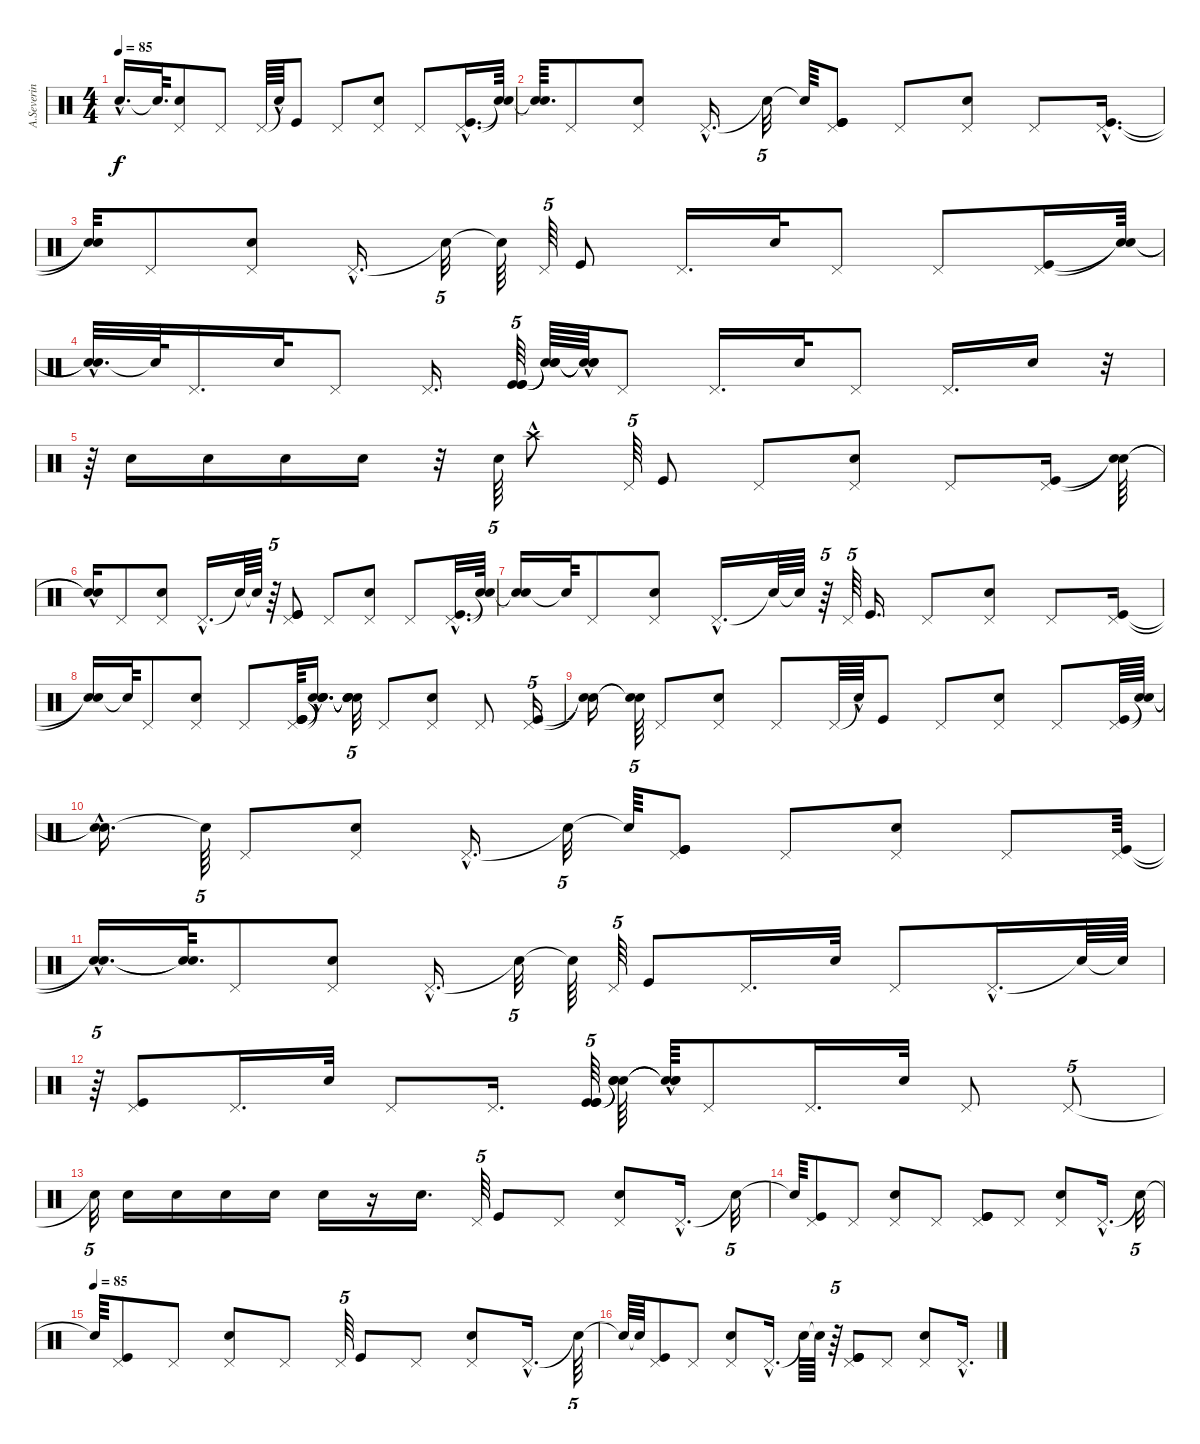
\track ("A.Severin        Drums                  " "A.Severin ") {instrument percussion}
\staff {score}
\articulation defaults
\ts (4 4)
\tempo 85
\clef neutral
\ks c "Snare (hit)"{hac t}.16{d dy f} "Snare (hit)"{t}.64{d}
("Electric Snare (hit)" "Pedal Hi-Hat (hit)").8 "Pedal Hi-Hat (hit)".8 "Pedal Hi-Hat (hit)".64 "Snare (hit)"{hac t}.64 "Kick (hit)".8 "Pedal Hi-Hat (hit)".8 ("Electric Snare (hit)" "Pedal Hi-Hat (hit)").8 "Pedal Hi-Hat (hit)".8 ("Kick (hit)"{hac} "Pedal Hi-Hat (hit)"{hac}).16{d} ("Snare (hit)"{t} "Snare (hit)"{t}).64 |
("Snare (hit)"{t} "Snare (hit)"{t}).64{d} "Pedal Hi-Hat (hit)".8 ("Electric Snare (hit)" "Pedal Hi-Hat (hit)").8 "Pedal Hi-Hat (hit)"{hac}.16{d} "Snare (hit)"{t}.32{tu (5 4)} "Snare (hit)"{t}.64 ("Kick (hit)" "Kick (hit)" "Kick (hit)" "Pedal Hi-Hat (hit)").8 "Pedal Hi-Hat (hit)".8 ("Electric Snare (hit)" "Pedal Hi-Hat (hit)").8 "Pedal Hi-Hat (hit)".8 ("Kick (hit)"{hac} "Pedal Hi-Hat (hit)"{hac}).16{d} |
("Snare (hit)"{t} "Snare (hit)"{t}).32 "Pedal Hi-Hat (hit)".8 ("Electric Snare (hit)" "Pedal Hi-Hat (hit)").8 "Pedal Hi-Hat (hit)"{hac}.16{d} "Snare (hit)"{t}.32{tu (5 4)} "Snare (hit)"{t}.64 "Pedal Hi-Hat (hit)".64{tu (5 4)} "Kick (hit)".8 "Pedal Hi-Hat (hit)".16{d} "Electric Snare (hit)".32 "Pedal Hi-Hat (hit)".8 "Pedal Hi-Hat (hit)".8 ("Kick (hit)" "Pedal Hi-Hat (hit)").16 ("Snare (hit)"{t} "Snare (hit)"{t}).64 |
("Snare (hit)"{hac t} "Snare (hit)"{hac t}).32{d} "Snare (hit)"{t}.64 "Pedal Hi-Hat (hit)".16{d} "Electric Snare (hit)".32 "Pedal Hi-Hat (hit)".8 "Pedal Hi-Hat (hit)".16{d} ("Kick (hit)" "Kick (hit)" "Kick (hit)").64{tu (5 4)} ("Snare (hit)"{t} "Snare (hit)"{t} "Snare (hit)"{t}).64 ("Snare (hit)"{hac t} "Snare (hit)"{hac t} "Snare (hit)"{hac t}).64 "Pedal Hi-Hat (hit)".8 "Pedal Hi-Hat (hit)".16{d} "Electric Snare (hit)".32 "Pedal Hi-Hat (hit)".8 "Pedal Hi-Hat (hit)".16{d} "Electric Snare (hit)".16 r.32 |
r.64 "Electric Snare (hit)".16 "Electric Snare (hit)".16 "Electric Snare (hit)".16 "Electric Snare (hit)".16 r.32 "Electric Snare (hit)".64{tu (5 4)} "Crash high (hit)"{hac}.8 "Pedal Hi-Hat (hit)".64{tu (5 4)} "Kick (hit)".8 "Pedal Hi-Hat (hit)".8 ("Electric Snare (hit)" "Pedal Hi-Hat (hit)").8 "Pedal Hi-Hat (hit)".8 ("Pedal Hi-Hat (hit)" "Kick (hit)").16 ("Snare (hit)"{t} "Snare (hit)"{t}).64 |
("Snare (hit)"{hac t} "Snare (hit)"{t}).16 "Pedal Hi-Hat (hit)".8 ("Electric Snare (hit)" "Pedal Hi-Hat (hit)").8 "Pedal Hi-Hat (hit)"{hac}.16{d} "Snare (hit)"{t}.64 "Snare (hit)"{t}.64 r.64{tu (5 4)} ("Kick (hit)" "Kick (hit)" "Kick (hit)" "Pedal Hi-Hat (hit)").8 "Pedal Hi-Hat (hit)".8 ("Electric Snare (hit)" "Pedal Hi-Hat (hit)").8 "Pedal Hi-Hat (hit)".8 ("Kick (hit)"{hac} "Pedal Hi-Hat (hit)"{hac}).32{d} ("Snare (hit)"{t} "Snare (hit)"{t}).64 |
("Snare (hit)"{t} "Snare (hit)"{t}).16 "Snare (hit)"{t}.64 "Pedal Hi-Hat (hit)".8 ("Electric Snare (hit)" "Pedal Hi-Hat (hit)").8 "Pedal Hi-Hat (hit)"{hac}.16{d} "Snare (hit)"{t}.64 "Snare (hit)"{t}.64 r.64{tu (5 4)} "Pedal Hi-Hat (hit)".64{tu (5 4)} "Kick (hit)".16{d} "Pedal Hi-Hat (hit)".8 ("Electric Snare (hit)" "Pedal Hi-Hat (hit)").8 "Pedal Hi-Hat (hit)".8 ("Kick (hit)" "Pedal Hi-Hat (hit)").16 |
("Snare (hit)"{t} "Snare (hit)"{t}).16 "Snare (hit)"{t}.64 "Pedal Hi-Hat (hit)".8 ("Electric Snare (hit)" "Pedal Hi-Hat (hit)").8 "Pedal Hi-Hat (hit)".8 ("Kick (hit)" "Kick (hit)" "Kick (hit)" "Pedal Hi-Hat (hit)").64 ("Snare (hit)"{hac t} "Snare (hit)"{hac t} "Snare (hit)"{hac t} "Snare (hit)"{hac t}).16{d} ("Snare (hit)"{t} "Snare (hit)"{t} "Snare (hit)"{t} "Snare (hit)"{t}).32{tu (5 4)} "Pedal Hi-Hat (hit)".8 ("Electric Snare (hit)" "Pedal Hi-Hat (hit)").8 "Pedal Hi-Hat (hit)".8 ("Kick (hit)" "Pedal Hi-Hat (hit)").16{tu (5 4)} |
("Snare (hit)"{t} "Snare (hit)"{t}).16 ("Snare (hit)"{t} "Snare (hit)"{t}).64{tu (5 4)} "Pedal Hi-Hat (hit)".8 ("Electric Snare (hit)" "Pedal Hi-Hat (hit)").8 "Pedal Hi-Hat (hit)".8 "Pedal Hi-Hat (hit)".64 "Snare (hit)"{hac t}.64 "Kick (hit)".8 "Pedal Hi-Hat (hit)".8 ("Electric Snare (hit)" "Pedal Hi-Hat (hit)").8 "Pedal Hi-Hat (hit)".8 ("Pedal Hi-Hat (hit)" "Kick (hit)").64 ("Snare (hit)"{t} "Snare (hit)"{t}).64 |
("Snare (hit)"{hac t} "Snare (hit)"{hac t}).16{d} "Snare (hit)"{t}.64{tu (5 4)} "Pedal Hi-Hat (hit)".8 ("Electric Snare (hit)" "Pedal Hi-Hat (hit)").8 "Pedal Hi-Hat (hit)"{hac}.16{d} "Snare (hit)"{t}.32{tu (5 4)} "Snare (hit)"{t}.64 ("Kick (hit)" "Kick (hit)" "Kick (hit)" "Pedal Hi-Hat (hit)").8 "Pedal Hi-Hat (hit)".8 ("Electric Snare (hit)" "Pedal Hi-Hat (hit)").8 "Pedal Hi-Hat (hit)".8 ("Kick (hit)" "Pedal Hi-Hat (hit)").64 |
("Snare (hit)"{hac t} "Snare (hit)"{hac t}).16{d} ("Snare (hit)"{t} "Snare (hit)"{t}).64{d} "Pedal Hi-Hat (hit)".8 ("Electric Snare (hit)" "Pedal Hi-Hat (hit)").8 "Pedal Hi-Hat (hit)"{hac}.16{d} "Snare (hit)"{t}.32{tu (5 4)} "Snare (hit)"{t}.64 "Pedal Hi-Hat (hit)".64{tu (5 4)} "Kick (hit)".8 "Pedal Hi-Hat (hit)".16{d} "Electric Snare (hit)".32 "Pedal Hi-Hat (hit)".8 "Pedal Hi-Hat (hit)"{hac}.16{d} "Snare (hit)"{t}.64 "Snare (hit)"{t}.64 |
r.64{tu (5 4)} ("Pedal Hi-Hat (hit)" "Kick (hit)").8 "Pedal Hi-Hat (hit)".16{d} "Electric Snare (hit)".32 "Pedal Hi-Hat (hit)".8 "Pedal Hi-Hat (hit)".16{d} ("Kick (hit)" "Kick (hit)" "Kick (hit)").64{tu (5 4)} ("Snare (hit)"{t} "Snare (hit)"{t} "Snare (hit)"{t}).64 ("Snare (hit)"{hac t} "Snare (hit)"{hac t} "Snare (hit)"{hac t}).64 "Pedal Hi-Hat (hit)".8 "Pedal Hi-Hat (hit)".16{d} "Electric Snare (hit)".32 "Pedal Hi-Hat (hit)".8 "Pedal Hi-Hat (hit)".8{tu (5 4)} |
"Snare (hit)"{t}.32{tu (5 4)} "Electric Snare (hit)".16 "Electric Snare (hit)".16 "Electric Snare (hit)".16 "Electric Snare (hit)".16 "Electric Snare (hit)".16 r.16 "Electric Snare (hit)".16{d} "Pedal Hi-Hat (hit)".64{tu (5 4)} "Kick (hit)".8 "Pedal Hi-Hat (hit)".8 ("Electric Snare (hit)" "Pedal Hi-Hat (hit)").8 "Pedal Hi-Hat (hit)"{hac}.16{d} "Snare (hit)"{t}.32{tu (5 4)} |
"Snare (hit)"{t}.64 ("Pedal Hi-Hat (hit)" "Kick (hit)").8 "Pedal Hi-Hat (hit)".8 ("Electric Snare (hit)" "Pedal Hi-Hat (hit)").8 "Pedal Hi-Hat (hit)".8 ("Kick (hit)" "Kick (hit)" "Kick (hit)" "Pedal Hi-Hat (hit)").8 "Pedal Hi-Hat (hit)".8 ("Electric Snare (hit)" "Pedal Hi-Hat (hit)").8 "Pedal Hi-Hat (hit)"{hac}.16{d} "Snare (hit)"{t}.32{tu (5 4)} |
\tempo (85)
"Snare (hit)"{t}.64 ("Kick (hit)" "Pedal Hi-Hat (hit)").8 "Pedal Hi-Hat (hit)".8 ("Electric Snare (hit)" "Pedal Hi-Hat (hit)").8 "Pedal Hi-Hat (hit)".8 "Pedal Hi-Hat (hit)".64{tu (5 4)} "Kick (hit)".8 "Pedal Hi-Hat (hit)".8 ("Electric Snare (hit)" "Pedal Hi-Hat (hit)").8 "Pedal Hi-Hat (hit)"{hac}.16{d} "Snare (hit)"{t}.64{tu (5 4)} |
"Snare (hit)"{t}.64 "Snare (hit)"{t}.64 ("Kick (hit)" "Pedal Hi-Hat (hit)").8 "Pedal Hi-Hat (hit)".8 ("Electric Snare (hit)" "Pedal Hi-Hat (hit)").8 "Pedal Hi-Hat (hit)"{hac}.16{d} "Snare (hit)"{t}.64 "Snare (hit)"{t}.64 r.64{tu (5 4)} ("Kick (hit)" "Kick (hit)" "Kick (hit)" "Pedal Hi-Hat (hit)").8 "Pedal Hi-Hat (hit)".8 ("Electric Snare (hit)" "Pedal Hi-Hat (hit)").8 "Pedal Hi-Hat (hit)"{hac}.16{d}
